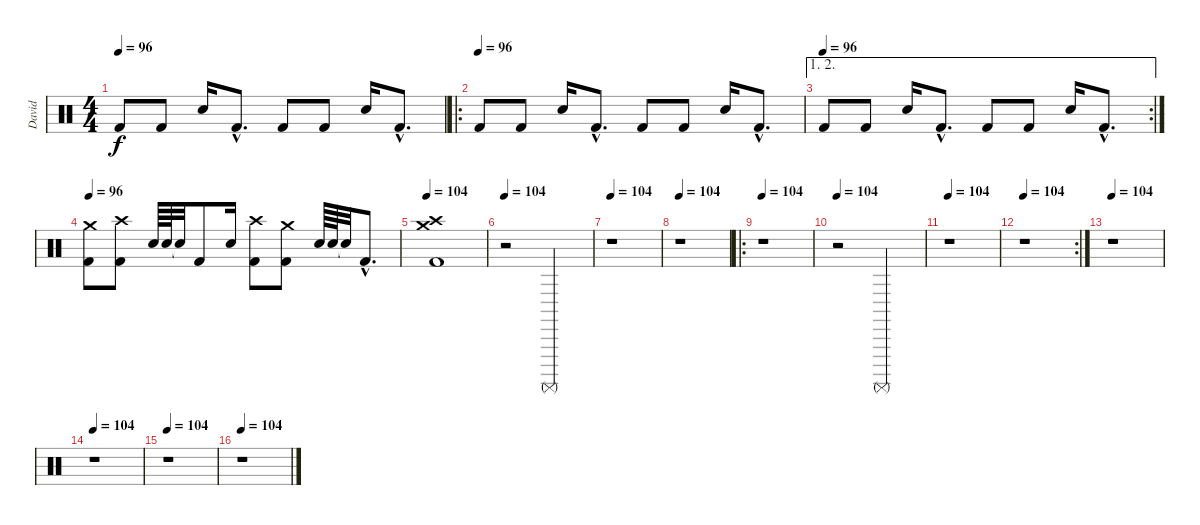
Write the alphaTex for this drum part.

\track ("David" "David") {instrument percussion}
\staff {score}
\articulation defaults
\ts (4 4)
\tempo 96
\clef neutral
\ks c "Kick (hit) 2".8{dy f} "Kick (hit) 2".8 "Snare (hit) 2".16 "Kick (hit) 2"{hac}.8{d} "Kick (hit) 2".8 "Kick (hit) 2".8 "Snare (hit) 2".16 "Kick (hit) 2"{hac}.8{d}
|
\ro
\tempo (96)
"Kick (hit) 2".8 "Kick (hit) 2".8 "Snare (hit) 2".16 "Kick (hit) 2"{hac}.8{d} "Kick (hit) 2".8 "Kick (hit) 2".8 "Snare (hit) 2".16 "Kick (hit) 2"{hac}.8{d} |
\ae (1 2)
\rc 2
\tempo (96)
"Kick (hit) 2".8 "Kick (hit) 2".8 "Snare (hit) 2".16 "Kick (hit) 2"{hac}.8{d} "Kick (hit) 2".8 "Kick (hit) 2".8 "Snare (hit) 2".16 "Kick (hit) 2"{hac}.8{d} |
\tempo 96
("Crash medium (hit)" "Kick (hit) 2").8 ("Crash high (hit)" "Kick (hit) 2").8 "Snare (hit) 2".64 "Snare (hit) 2".64 "Snare (hit)"{t}.32 "Kick (hit) 2".8 "Snare (hit) 2".16 ("Crash high (hit)" "Kick (hit) 2").8 ("Crash medium (hit)" "Kick (hit) 2").8 "Snare (hit) 2".64 "Snare (hit) 2".64 "Snare (hit)"{t}.32 "Kick (hit) 2"{hac}.8{d} |
\tempo 104
("Crash medium (hit)" "Crash high (hit)" "Kick (hit) 2").1 |
\tempo 104
r.2 "Surdo (mute)".2 |
\tempo 104
r.1 |
\tempo 104
r.1 |
\ro
\tempo 104
r.1 |
\tempo 104
r.2 "Surdo (mute)".2 |
\tempo 104
r.1 |
\rc 2
\tempo 104
r.1 |
\tempo 104
r.1 |
\tempo 104
r.1 |
\tempo 104
r.1 |
\tempo 104
r.1
